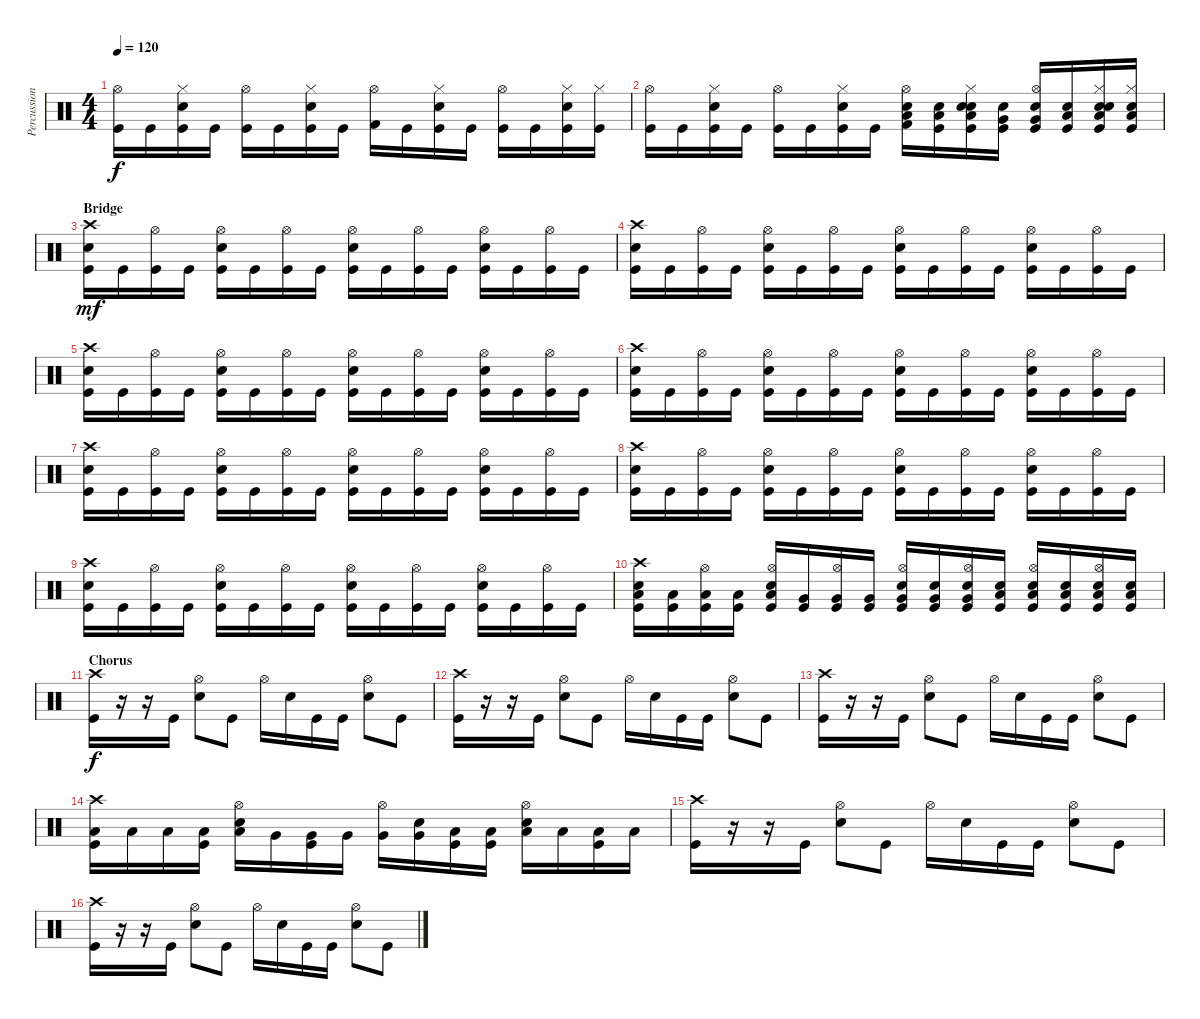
\track ("Percussion" "Percussion") {instrument percussion}
\staff {score}
\articulation defaults
\ts (4 4)
\tempo 120
\clef neutral
\ks c
("Kick (hit)" "Hi-Hat (open)").16{dy f} "Kick (hit)".16 ("Kick (hit)" "Electric Snare (hit)" "Hi-Hat (closed)").16 "Kick (hit)".16 ("Kick (hit)" "Hi-Hat (open)").16 "Kick (hit)".16 ("Kick (hit)" "Electric Snare (hit)" "Hi-Hat (closed)").16 "Kick (hit)".16 ("Kick (hit) 2" "Hi-Hat (open)").16 "Kick (hit)".16 ("Kick (hit)" "Electric Snare (hit)" "Hi-Hat (closed)").16 "Kick (hit)".16 ("Kick (hit)" "Hi-Hat (open)").16 "Kick (hit)".16 ("Kick (hit)" "Electric Snare (hit)" "Hi-Hat (closed)").16 ("Kick (hit)" "Hi-Hat (closed)").16 |
("Kick (hit)" "Hi-Hat (open)").16 "Kick (hit)".16 ("Kick (hit)" "Electric Snare (hit)" "Hi-Hat (closed)").16 "Kick (hit)".16 ("Kick (hit)" "Hi-Hat (open)").16 "Kick (hit)".16 ("Kick (hit)" "Electric Snare (hit)" "Hi-Hat (closed)").16 "Kick (hit)".16 ("Kick (hit) 2" "Electric Snare (hit)" "Low Tom (hit)" "Hi-Hat (open)").16 ("Kick (hit)" "Electric Snare (hit)" "Low Tom (hit)").16 ("Kick (hit)" "Electric Snare (hit)" "Electric Snare (hit)" "Low Tom (hit)" "Hi-Hat (closed)").16 ("Kick (hit)" "Electric Snare (hit)" "Very Low Tom (hit)").16 ("Kick (hit)" "Electric Snare (hit)" "Very Low Tom (hit)" "Hi-Hat (open)").16 ("Kick (hit)" "Electric Snare (hit)" "Low Floor Tom (hit)").16 ("Kick (hit)" "Electric Snare (hit)" "Electric Snare (hit)" "Low Floor Tom (hit)" "Hi-Hat (closed)").16 ("Kick (hit)" "Electric Snare (hit)" "Low Floor Tom (hit)" "Hi-Hat (closed)").16 |
\section ("" "Bridge")
("Kick (hit)" "Electric Snare (hit)" "Crash high (hit)").16{dy mf} "Kick (hit)".16 ("Kick (hit)" "Hi-Hat (open)").16 "Kick (hit)".16 ("Kick (hit)" "Electric Snare (hit)" "Hi-Hat (open)").16 "Kick (hit)".16 ("Kick (hit)" "Hi-Hat (open)").16 "Kick (hit)".16 ("Kick (hit)" "Electric Snare (hit)" "Hi-Hat (open)").16 "Kick (hit)".16 ("Kick (hit)" "Hi-Hat (open)").16 "Kick (hit)".16 ("Kick (hit)" "Electric Snare (hit)" "Hi-Hat (open)").16 "Kick (hit)".16 ("Kick (hit)" "Hi-Hat (open)").16 "Kick (hit)".16 |
("Kick (hit)" "Electric Snare (hit)" "Crash high (hit)").16 "Kick (hit)".16 ("Kick (hit)" "Hi-Hat (open)").16 "Kick (hit)".16 ("Kick (hit)" "Electric Snare (hit)" "Hi-Hat (open)").16 "Kick (hit)".16 ("Kick (hit)" "Hi-Hat (open)").16 "Kick (hit)".16 ("Kick (hit)" "Electric Snare (hit)" "Hi-Hat (open)").16 "Kick (hit)".16 ("Kick (hit)" "Hi-Hat (open)").16 "Kick (hit)".16 ("Kick (hit)" "Electric Snare (hit)" "Hi-Hat (open)").16 "Kick (hit)".16 ("Kick (hit)" "Hi-Hat (open)").16 "Kick (hit)".16 |
("Kick (hit)" "Electric Snare (hit)" "Crash high (hit)").16 "Kick (hit)".16 ("Kick (hit)" "Hi-Hat (open)").16 "Kick (hit)".16 ("Kick (hit)" "Electric Snare (hit)" "Hi-Hat (open)").16 "Kick (hit)".16 ("Kick (hit)" "Hi-Hat (open)").16 "Kick (hit)".16 ("Kick (hit)" "Electric Snare (hit)" "Hi-Hat (open)").16 "Kick (hit)".16 ("Kick (hit)" "Hi-Hat (open)").16 "Kick (hit)".16 ("Kick (hit)" "Electric Snare (hit)" "Hi-Hat (open)").16 "Kick (hit)".16 ("Kick (hit)" "Hi-Hat (open)").16 "Kick (hit)".16 |
("Kick (hit)" "Electric Snare (hit)" "Crash high (hit)").16 "Kick (hit)".16 ("Kick (hit)" "Hi-Hat (open)").16 "Kick (hit)".16 ("Kick (hit)" "Electric Snare (hit)" "Hi-Hat (open)").16 "Kick (hit)".16 ("Kick (hit)" "Hi-Hat (open)").16 "Kick (hit)".16 ("Kick (hit)" "Electric Snare (hit)" "Hi-Hat (open)").16 "Kick (hit)".16 ("Kick (hit)" "Hi-Hat (open)").16 "Kick (hit)".16 ("Kick (hit)" "Electric Snare (hit)" "Hi-Hat (open)").16 "Kick (hit)".16 ("Kick (hit)" "Hi-Hat (open)").16 "Kick (hit)".16 |
("Kick (hit)" "Electric Snare (hit)" "Crash high (hit)").16 "Kick (hit)".16 ("Kick (hit)" "Hi-Hat (open)").16 "Kick (hit)".16 ("Kick (hit)" "Electric Snare (hit)" "Hi-Hat (open)").16 "Kick (hit)".16 ("Kick (hit)" "Hi-Hat (open)").16 "Kick (hit)".16 ("Kick (hit)" "Electric Snare (hit)" "Hi-Hat (open)").16 "Kick (hit)".16 ("Kick (hit)" "Hi-Hat (open)").16 "Kick (hit)".16 ("Kick (hit)" "Electric Snare (hit)" "Hi-Hat (open)").16 "Kick (hit)".16 ("Kick (hit)" "Hi-Hat (open)").16 "Kick (hit)".16 |
("Kick (hit)" "Electric Snare (hit)" "Crash high (hit)").16 "Kick (hit)".16 ("Kick (hit)" "Hi-Hat (open)").16 "Kick (hit)".16 ("Kick (hit)" "Electric Snare (hit)" "Hi-Hat (open)").16 "Kick (hit)".16 ("Kick (hit)" "Hi-Hat (open)").16 "Kick (hit)".16 ("Kick (hit)" "Electric Snare (hit)" "Hi-Hat (open)").16 "Kick (hit)".16 ("Kick (hit)" "Hi-Hat (open)").16 "Kick (hit)".16 ("Kick (hit)" "Electric Snare (hit)" "Hi-Hat (open)").16 "Kick (hit)".16 ("Kick (hit)" "Hi-Hat (open)").16 "Kick (hit)".16 |
("Kick (hit)" "Electric Snare (hit)" "Crash high (hit)").16 "Kick (hit)".16 ("Kick (hit)" "Hi-Hat (open)").16 "Kick (hit)".16 ("Kick (hit)" "Electric Snare (hit)" "Hi-Hat (open)").16 "Kick (hit)".16 ("Kick (hit)" "Hi-Hat (open)").16 "Kick (hit)".16 ("Kick (hit)" "Electric Snare (hit)" "Hi-Hat (open)").16 "Kick (hit)".16 ("Kick (hit)" "Hi-Hat (open)").16 "Kick (hit)".16 ("Kick (hit)" "Electric Snare (hit)" "Hi-Hat (open)").16 "Kick (hit)".16 ("Kick (hit)" "Hi-Hat (open)").16 "Kick (hit)".16 |
("Kick (hit)" "Electric Snare (hit)" "Low Tom (hit)" "Crash high (hit)").16 ("Kick (hit)" "Low Tom (hit)").16 ("Kick (hit)" "Low Tom (hit)" "Hi-Hat (open)").16 ("Kick (hit)" "Low Tom (hit)").16 ("Kick (hit)" "Electric Snare (hit)" "Low Tom (hit)" "Hi-Hat (open)").16 ("Kick (hit)" "Very Low Tom (hit)").16 ("Kick (hit)" "Very Low Tom (hit)" "Hi-Hat (open)").16 ("Kick (hit)" "Very Low Tom (hit)").16 ("Kick (hit)" "Electric Snare (hit)" "Very Low Tom (hit)" "Hi-Hat (open)").16 ("Kick (hit)" "Electric Snare (hit)" "Very Low Tom (hit)").16 ("Kick (hit)" "Electric Snare (hit)" "Very Low Tom (hit)" "Hi-Hat (open)").16 ("Kick (hit)" "Electric Snare (hit)" "Low Floor Tom (hit)").16 ("Kick (hit)" "Electric Snare (hit)" "Low Floor Tom (hit)" "Hi-Hat (open)").16 ("Kick (hit)" "Electric Snare (hit)" "Low Floor Tom (hit)").16 ("Kick (hit)" "Electric Snare (hit)" "Low Floor Tom (hit)" "Hi-Hat (open)").16 ("Kick (hit)" "Electric Snare (hit)" "Low Floor Tom (hit)").16 |
\section ("" "Chorus")
("Crash high (hit)" "Kick (hit)").16{dy f} r.16 r.16 "Kick (hit)".16 ("Hi-Hat (open)" "Electric Snare (hit)").8 "Kick (hit)".8 "Hi-Hat (open)".16 "Electric Snare (hit)".16 "Kick (hit)".16 "Kick (hit)".16 ("Hi-Hat (open)" "Electric Snare (hit)").8 "Kick (hit)".8 |
("Crash high (hit)" "Kick (hit)").16 r.16 r.16 "Kick (hit)".16 ("Hi-Hat (open)" "Electric Snare (hit)").8 "Kick (hit)".8 "Hi-Hat (open)".16 "Electric Snare (hit)".16 "Kick (hit)".16 "Kick (hit)".16 ("Hi-Hat (open)" "Electric Snare (hit)").8 "Kick (hit)".8 |
("Crash high (hit)" "Kick (hit)").16 r.16 r.16 "Kick (hit)".16 ("Hi-Hat (open)" "Electric Snare (hit)").8 "Kick (hit)".8 "Hi-Hat (open)".16 "Electric Snare (hit)".16 "Kick (hit)".16 "Kick (hit)".16 ("Hi-Hat (open)" "Electric Snare (hit)").8 "Kick (hit)".8 |
("Crash high (hit)" "Low Tom (hit)" "Kick (hit)").16 "Low Tom (hit)".16 "Low Tom (hit)".16 ("Low Tom (hit)" "Kick (hit)").16 ("Hi-Hat (open)" "Low Tom (hit)" "Electric Snare (hit)").16 "Very Low Tom (hit)".16 ("Very Low Tom (hit)" "Kick (hit)").16 "Very Low Tom (hit)".16 ("Hi-Hat (open)" "Very Low Tom (hit)").16 ("Very Low Tom (hit)" "Electric Snare (hit)").16 ("Low Floor Tom (hit)" "Kick (hit)").16 ("Low Floor Tom (hit)" "Kick (hit)").16 ("Hi-Hat (open)" "Low Floor Tom (hit)" "Electric Snare (hit)").16 "Low Floor Tom (hit)".16 ("Low Floor Tom (hit)" "Kick (hit)").16 "Low Floor Tom (hit)".16 |
("Crash high (hit)" "Kick (hit)").16 r.16 r.16 "Kick (hit)".16 ("Hi-Hat (open)" "Electric Snare (hit)").8 "Kick (hit)".8 "Hi-Hat (open)".16 "Electric Snare (hit)".16 "Kick (hit)".16 "Kick (hit)".16 ("Hi-Hat (open)" "Electric Snare (hit)").8 "Kick (hit)".8 |
("Crash high (hit)" "Kick (hit)").16 r.16 r.16 "Kick (hit)".16 ("Hi-Hat (open)" "Electric Snare (hit)").8 "Kick (hit)".8 "Hi-Hat (open)".16 "Electric Snare (hit)".16 "Kick (hit)".16 "Kick (hit)".16 ("Hi-Hat (open)" "Electric Snare (hit)").8 "Kick (hit)".8
